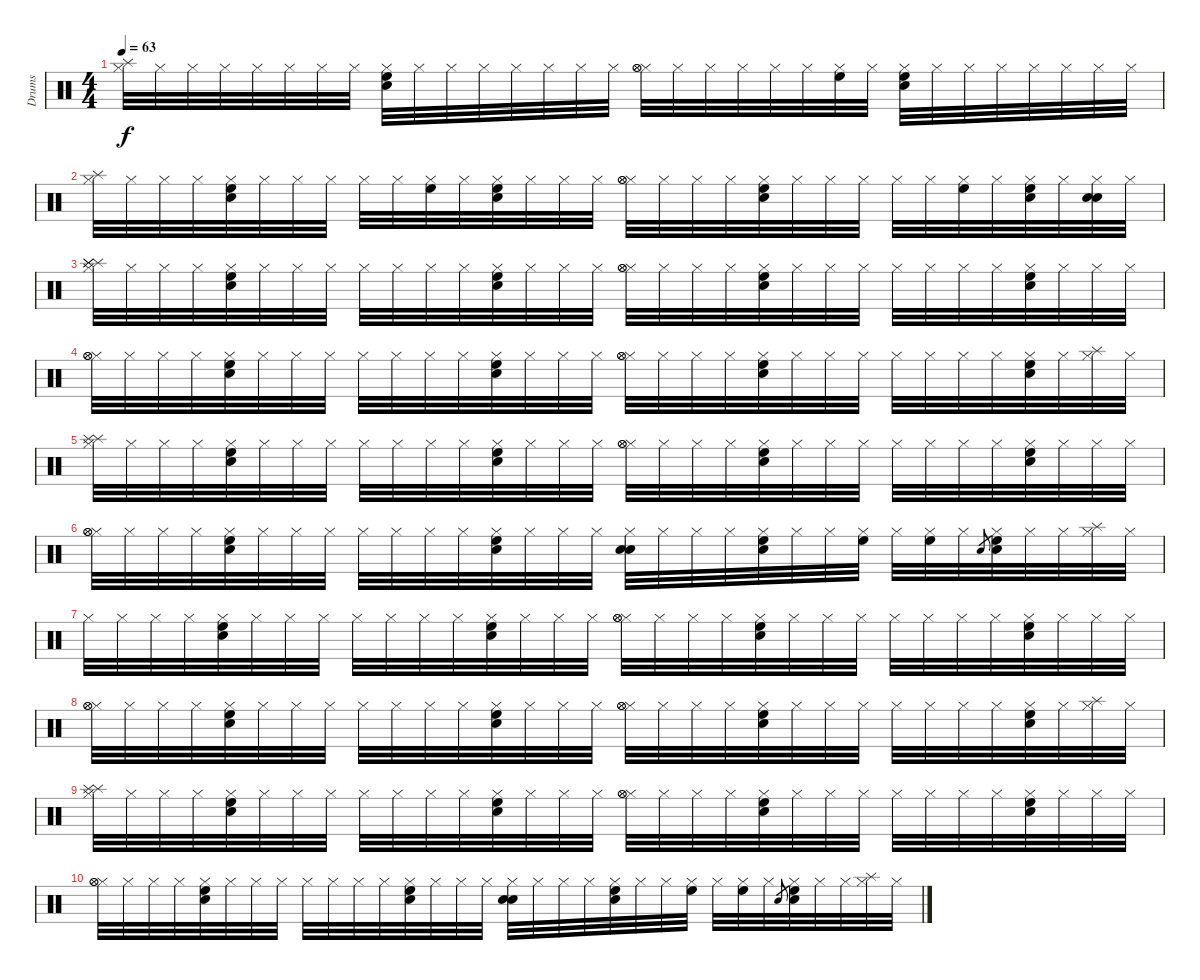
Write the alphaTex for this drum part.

\track ("Drums" "Drums") {instrument percussion}
\staff {score}
\articulation defaults
\ts (4 4)
\tempo 63
\clef neutral
\ks c
("Hi-Hat (closed)" "Splash (hit)").32{dy f} "Hi-Hat (closed)".32 "Hi-Hat (closed)".32 "Hi-Hat (closed)".32 "Hi-Hat (closed)".32 "Hi-Hat (closed)".32 "Hi-Hat (closed)".32 "Hi-Hat (closed)".32 ("Hi-Hat (closed)" "Snare (hit) 2" "High Floor Tom (hit)").32 "Hi-Hat (closed)".32 "Hi-Hat (closed)".32 "Hi-Hat (closed)".32 "Hi-Hat (closed)".32 "Hi-Hat (closed)".32 "Hi-Hat (closed)".32 "Hi-Hat (closed)".32 ("Hi-Hat (closed)" "Hi-Hat (open)" "Hi-Hat (open)").32 "Hi-Hat (closed)".32 "Hi-Hat (closed)".32 "Hi-Hat (closed)".32 "Hi-Hat (closed)".32 "Hi-Hat (closed)".32 ("Hi-Hat (closed)" "High Floor Tom (hit)").32 "Hi-Hat (closed)".32 ("Hi-Hat (closed)" "Snare (hit) 2" "High Floor Tom (hit)").32 "Hi-Hat (closed)".32 "Hi-Hat (closed)".32 "Hi-Hat (closed)".32 "Hi-Hat (closed)".32 "Hi-Hat (closed)".32 "Hi-Hat (closed)".32 "Hi-Hat (closed)".32 |
("Hi-Hat (closed)" "Splash (hit)").32 "Hi-Hat (closed)".32 "Hi-Hat (closed)".32 "Hi-Hat (closed)".32 ("Hi-Hat (closed)" "Snare (hit) 2" "High Floor Tom (hit)").32 "Hi-Hat (closed)".32 "Hi-Hat (closed)".32 "Hi-Hat (closed)".32 "Hi-Hat (closed)".32 "Hi-Hat (closed)".32 ("Hi-Hat (closed)" "High Floor Tom (hit)").32 "Hi-Hat (closed)".32 ("Hi-Hat (closed)" "Snare (hit) 2" "High Floor Tom (hit)").32 "Hi-Hat (closed)".32 "Hi-Hat (closed)".32 "Hi-Hat (closed)".32 ("Hi-Hat (closed)" "Hi-Hat (open)" "Hi-Hat (open)").32 "Hi-Hat (closed)".32 "Hi-Hat (closed)".32 "Hi-Hat (closed)".32 ("Hi-Hat (closed)" "Snare (hit) 2" "High Floor Tom (hit)").32 "Hi-Hat (closed)".32 "Hi-Hat (closed)".32 "Hi-Hat (closed)".32 "Hi-Hat (closed)".32 "Hi-Hat (closed)".32 ("Hi-Hat (closed)" "High Floor Tom (hit)").32 "Hi-Hat (closed)".32 ("Hi-Hat (closed)" "Snare (hit) 2" "High Floor Tom (hit)").32 "Hi-Hat (closed)".32 ("Hi-Hat (closed)" "Snare (hit) 2" "Snare (hit) 2").32 "Hi-Hat (closed)".32 |
("Hi-Hat (closed)" "Splash (hit)" "Splash (hit)" "Splash (hit)").32 "Hi-Hat (closed)".32 "Hi-Hat (closed)".32 "Hi-Hat (closed)".32 ("Hi-Hat (closed)" "Snare (hit) 2" "High Floor Tom (hit)").32 "Hi-Hat (closed)".32 "Hi-Hat (closed)".32 "Hi-Hat (closed)".32 "Hi-Hat (closed)".32 "Hi-Hat (closed)".32 "Hi-Hat (closed)".32 "Hi-Hat (closed)".32 ("Hi-Hat (closed)" "Snare (hit) 2" "High Floor Tom (hit)").32 "Hi-Hat (closed)".32 "Hi-Hat (closed)".32 "Hi-Hat (closed)".32 ("Hi-Hat (closed)" "Hi-Hat (open)" "Hi-Hat (open)").32 "Hi-Hat (closed)".32 "Hi-Hat (closed)".32 "Hi-Hat (closed)".32 ("Hi-Hat (closed)" "Snare (hit) 2" "High Floor Tom (hit)").32 "Hi-Hat (closed)".32 "Hi-Hat (closed)".32 "Hi-Hat (closed)".32 "Hi-Hat (closed)".32 "Hi-Hat (closed)".32 "Hi-Hat (closed)".32 "Hi-Hat (closed)".32 ("Hi-Hat (closed)" "Snare (hit) 2" "High Floor Tom (hit)").32 "Hi-Hat (closed)".32 "Hi-Hat (closed)".32 "Hi-Hat (closed)".32 |
("Hi-Hat (closed)" "Hi-Hat (open)" "Hi-Hat (open)").32 "Hi-Hat (closed)".32 "Hi-Hat (closed)".32 "Hi-Hat (closed)".32 ("Hi-Hat (closed)" "Snare (hit) 2" "High Floor Tom (hit)").32 "Hi-Hat (closed)".32 "Hi-Hat (closed)".32 "Hi-Hat (closed)".32 "Hi-Hat (closed)".32 "Hi-Hat (closed)".32 "Hi-Hat (closed)".32 "Hi-Hat (closed)".32 ("Hi-Hat (closed)" "Snare (hit) 2" "High Floor Tom (hit)").32 "Hi-Hat (closed)".32 "Hi-Hat (closed)".32 "Hi-Hat (closed)".32 ("Hi-Hat (closed)" "Hi-Hat (open)" "Hi-Hat (open)").32 "Hi-Hat (closed)".32 "Hi-Hat (closed)".32 "Hi-Hat (closed)".32 ("Hi-Hat (closed)" "Snare (hit) 2" "High Floor Tom (hit)").32 "Hi-Hat (closed)".32 "Hi-Hat (closed)".32 "Hi-Hat (closed)".32 "Hi-Hat (closed)".32 "Hi-Hat (closed)".32 "Hi-Hat (closed)".32 "Hi-Hat (closed)".32 ("Hi-Hat (closed)" "Snare (hit) 2" "High Floor Tom (hit)").32 "Hi-Hat (closed)".32 ("Hi-Hat (closed)" "Splash (hit)").32 "Hi-Hat (closed)".32 |
("Hi-Hat (closed)" "Splash (hit)" "Splash (hit)").32{volume 8} "Hi-Hat (closed)".32 "Hi-Hat (closed)".32 "Hi-Hat (closed)".32 ("Hi-Hat (closed)" "Snare (hit) 2" "High Floor Tom (hit)").32 "Hi-Hat (closed)".32 "Hi-Hat (closed)".32 "Hi-Hat (closed)".32 "Hi-Hat (closed)".32 "Hi-Hat (closed)".32 "Hi-Hat (closed)".32 "Hi-Hat (closed)".32 ("Hi-Hat (closed)" "Snare (hit) 2" "High Floor Tom (hit)").32 "Hi-Hat (closed)".32 "Hi-Hat (closed)".32 "Hi-Hat (closed)".32 ("Hi-Hat (closed)" "Hi-Hat (open)" "Hi-Hat (open)").32 "Hi-Hat (closed)".32 "Hi-Hat (closed)".32 "Hi-Hat (closed)".32 ("Hi-Hat (closed)" "Snare (hit) 2" "High Floor Tom (hit)").32 "Hi-Hat (closed)".32 "Hi-Hat (closed)".32 "Hi-Hat (closed)".32 "Hi-Hat (closed)".32 "Hi-Hat (closed)".32 "Hi-Hat (closed)".32 "Hi-Hat (closed)".32 ("Hi-Hat (closed)" "Snare (hit) 2" "High Floor Tom (hit)").32 "Hi-Hat (closed)".32 "Hi-Hat (closed)".32 "Hi-Hat (closed)".32 |
("Hi-Hat (closed)" "Hi-Hat (open)" "Hi-Hat (open)").32{volume 6} "Hi-Hat (closed)".32 "Hi-Hat (closed)".32 "Hi-Hat (closed)".32 ("Hi-Hat (closed)" "Snare (hit) 2" "High Floor Tom (hit)").32 "Hi-Hat (closed)".32 "Hi-Hat (closed)".32 "Hi-Hat (closed)".32 "Hi-Hat (closed)".32 "Hi-Hat (closed)".32 "Hi-Hat (closed)".32 "Hi-Hat (closed)".32 ("Hi-Hat (closed)" "Snare (hit) 2" "High Floor Tom (hit)").32 "Hi-Hat (closed)".32 "Hi-Hat (closed)".32 "Hi-Hat (closed)".32 ("Hi-Hat (closed)" "Snare (hit) 2" "Snare (hit) 2").32 "Hi-Hat (closed)".32 "Hi-Hat (closed)".32 "Hi-Hat (closed)".32 ("Hi-Hat (closed)" "Snare (hit) 2" "High Floor Tom (hit)").32 "Hi-Hat (closed)".32 "Hi-Hat (closed)".32 ("Hi-Hat (closed)" "High Floor Tom (hit)").32 "Hi-Hat (closed)".32 ("Hi-Hat (closed)" "High Floor Tom (hit)").32 "Hi-Hat (closed)".32 "Snare (hit) 2".8{gr} ("Hi-Hat (closed)" "Snare (hit) 2" "High Floor Tom (hit)").32 "Hi-Hat (closed)".32 "Hi-Hat (closed)".32 ("Hi-Hat (closed)" "Splash (hit)").32 "Hi-Hat (closed)".32 |
"Hi-Hat (closed)".32{volume 4} "Hi-Hat (closed)".32 "Hi-Hat (closed)".32 "Hi-Hat (closed)".32 ("Hi-Hat (closed)" "Snare (hit) 2" "High Floor Tom (hit)").32 "Hi-Hat (closed)".32 "Hi-Hat (closed)".32 "Hi-Hat (closed)".32 "Hi-Hat (closed)".32 "Hi-Hat (closed)".32 "Hi-Hat (closed)".32 "Hi-Hat (closed)".32 ("Hi-Hat (closed)" "Snare (hit) 2" "High Floor Tom (hit)").32 "Hi-Hat (closed)".32 "Hi-Hat (closed)".32 "Hi-Hat (closed)".32 ("Hi-Hat (closed)" "Hi-Hat (open)" "Hi-Hat (open)").32 "Hi-Hat (closed)".32 "Hi-Hat (closed)".32 "Hi-Hat (closed)".32 ("Hi-Hat (closed)" "Snare (hit) 2" "High Floor Tom (hit)").32 "Hi-Hat (closed)".32 "Hi-Hat (closed)".32 "Hi-Hat (closed)".32 "Hi-Hat (closed)".32 "Hi-Hat (closed)".32 "Hi-Hat (closed)".32 "Hi-Hat (closed)".32 ("Hi-Hat (closed)" "Snare (hit) 2" "High Floor Tom (hit)").32 "Hi-Hat (closed)".32 "Hi-Hat (closed)".32 "Hi-Hat (closed)".32 |
("Hi-Hat (closed)" "Hi-Hat (open)" "Hi-Hat (open)").32{volume 2} "Hi-Hat (closed)".32 "Hi-Hat (closed)".32 "Hi-Hat (closed)".32 ("Hi-Hat (closed)" "Snare (hit) 2" "High Floor Tom (hit)").32 "Hi-Hat (closed)".32 "Hi-Hat (closed)".32 "Hi-Hat (closed)".32 "Hi-Hat (closed)".32 "Hi-Hat (closed)".32 "Hi-Hat (closed)".32 "Hi-Hat (closed)".32 ("Hi-Hat (closed)" "Snare (hit) 2" "High Floor Tom (hit)").32 "Hi-Hat (closed)".32 "Hi-Hat (closed)".32 "Hi-Hat (closed)".32 ("Hi-Hat (closed)" "Hi-Hat (open)" "Hi-Hat (open)").32 "Hi-Hat (closed)".32 "Hi-Hat (closed)".32 "Hi-Hat (closed)".32 ("Hi-Hat (closed)" "Snare (hit) 2" "High Floor Tom (hit)").32 "Hi-Hat (closed)".32 "Hi-Hat (closed)".32 "Hi-Hat (closed)".32 "Hi-Hat (closed)".32 "Hi-Hat (closed)".32 "Hi-Hat (closed)".32 "Hi-Hat (closed)".32 ("Hi-Hat (closed)" "Snare (hit) 2" "High Floor Tom (hit)").32 "Hi-Hat (closed)".32 ("Hi-Hat (closed)" "Splash (hit)").32 "Hi-Hat (closed)".32 |
("Hi-Hat (closed)" "Splash (hit)" "Splash (hit)").32{volume 0} "Hi-Hat (closed)".32 "Hi-Hat (closed)".32 "Hi-Hat (closed)".32 ("Hi-Hat (closed)" "Snare (hit) 2" "High Floor Tom (hit)").32 "Hi-Hat (closed)".32 "Hi-Hat (closed)".32 "Hi-Hat (closed)".32 "Hi-Hat (closed)".32 "Hi-Hat (closed)".32 "Hi-Hat (closed)".32 "Hi-Hat (closed)".32 ("Hi-Hat (closed)" "Snare (hit) 2" "High Floor Tom (hit)").32 "Hi-Hat (closed)".32 "Hi-Hat (closed)".32 "Hi-Hat (closed)".32 ("Hi-Hat (closed)" "Hi-Hat (open)" "Hi-Hat (open)").32 "Hi-Hat (closed)".32 "Hi-Hat (closed)".32 "Hi-Hat (closed)".32 ("Hi-Hat (closed)" "Snare (hit) 2" "High Floor Tom (hit)").32 "Hi-Hat (closed)".32 "Hi-Hat (closed)".32 "Hi-Hat (closed)".32 "Hi-Hat (closed)".32 "Hi-Hat (closed)".32 "Hi-Hat (closed)".32 "Hi-Hat (closed)".32 ("Hi-Hat (closed)" "Snare (hit) 2" "High Floor Tom (hit)").32 "Hi-Hat (closed)".32 "Hi-Hat (closed)".32 "Hi-Hat (closed)".32 |
("Hi-Hat (closed)" "Hi-Hat (open)" "Hi-Hat (open)").32 "Hi-Hat (closed)".32 "Hi-Hat (closed)".32 "Hi-Hat (closed)".32 ("Hi-Hat (closed)" "Snare (hit) 2" "High Floor Tom (hit)").32 "Hi-Hat (closed)".32 "Hi-Hat (closed)".32 "Hi-Hat (closed)".32 "Hi-Hat (closed)".32 "Hi-Hat (closed)".32 "Hi-Hat (closed)".32 "Hi-Hat (closed)".32 ("Hi-Hat (closed)" "Snare (hit) 2" "High Floor Tom (hit)").32 "Hi-Hat (closed)".32 "Hi-Hat (closed)".32 "Hi-Hat (closed)".32 ("Hi-Hat (closed)" "Snare (hit) 2" "Snare (hit) 2").32 "Hi-Hat (closed)".32 "Hi-Hat (closed)".32 "Hi-Hat (closed)".32 ("Hi-Hat (closed)" "Snare (hit) 2" "High Floor Tom (hit)").32 "Hi-Hat (closed)".32 "Hi-Hat (closed)".32 ("Hi-Hat (closed)" "High Floor Tom (hit)").32 "Hi-Hat (closed)".32 ("Hi-Hat (closed)" "High Floor Tom (hit)").32 "Hi-Hat (closed)".32 "Snare (hit) 2".8{gr} ("Hi-Hat (closed)" "Snare (hit) 2" "High Floor Tom (hit)").32 "Hi-Hat (closed)".32 "Hi-Hat (closed)".32 ("Hi-Hat (closed)" "Splash (hit)").32 "Hi-Hat (closed)".32
